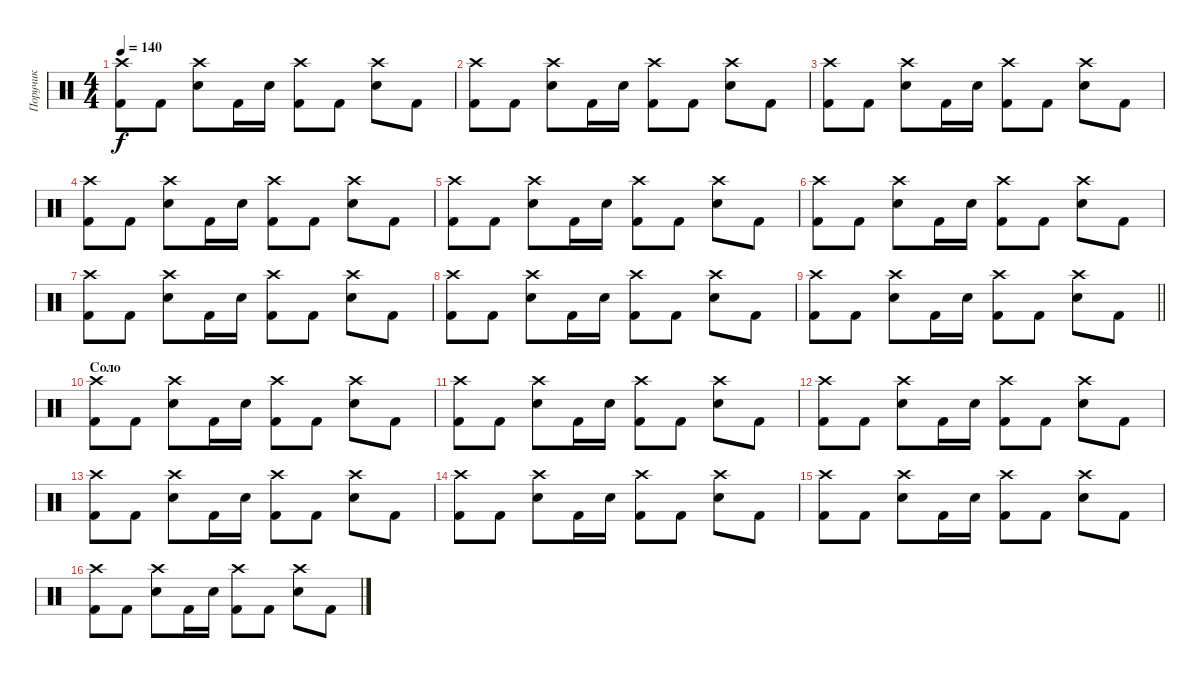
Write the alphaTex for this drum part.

\track ("Поручик" "Поручик") {instrument percussion}
\staff {score}
\articulation defaults
\ts (4 4)
\tempo 140
\clef neutral
\ks c
("Crash high (hit)" "Kick (hit) 2").8{dy f} "Kick (hit) 2".8 ("Crash high (hit)" "Electric Snare (hit)").8 "Kick (hit) 2".16 "Electric Snare (hit)".16 ("Crash high (hit)" "Kick (hit) 2").8 "Kick (hit) 2".8 ("Crash high (hit)" "Electric Snare (hit)").8 "Kick (hit) 2".8 |
("Crash high (hit)" "Kick (hit) 2").8 "Kick (hit) 2".8 ("Crash high (hit)" "Electric Snare (hit)").8 "Kick (hit) 2".16 "Electric Snare (hit)".16 ("Crash high (hit)" "Kick (hit) 2").8 "Kick (hit) 2".8 ("Crash high (hit)" "Electric Snare (hit)").8 "Kick (hit) 2".8 |
("Crash high (hit)" "Kick (hit) 2").8 "Kick (hit) 2".8 ("Crash high (hit)" "Electric Snare (hit)").8 "Kick (hit) 2".16 "Electric Snare (hit)".16 ("Crash high (hit)" "Kick (hit) 2").8 "Kick (hit) 2".8 ("Crash high (hit)" "Electric Snare (hit)").8 "Kick (hit) 2".8 |
("Crash high (hit)" "Kick (hit) 2").8 "Kick (hit) 2".8 ("Crash high (hit)" "Electric Snare (hit)").8 "Kick (hit) 2".16 "Electric Snare (hit)".16 ("Crash high (hit)" "Kick (hit) 2").8 "Kick (hit) 2".8 ("Crash high (hit)" "Electric Snare (hit)").8 "Kick (hit) 2".8 |
("Crash high (hit)" "Kick (hit) 2").8 "Kick (hit) 2".8 ("Crash high (hit)" "Electric Snare (hit)").8 "Kick (hit) 2".16 "Electric Snare (hit)".16 ("Crash high (hit)" "Kick (hit) 2").8 "Kick (hit) 2".8 ("Crash high (hit)" "Electric Snare (hit)").8 "Kick (hit) 2".8 |
("Crash high (hit)" "Kick (hit) 2").8 "Kick (hit) 2".8 ("Crash high (hit)" "Electric Snare (hit)").8 "Kick (hit) 2".16 "Electric Snare (hit)".16 ("Crash high (hit)" "Kick (hit) 2").8 "Kick (hit) 2".8 ("Crash high (hit)" "Electric Snare (hit)").8 "Kick (hit) 2".8 |
("Crash high (hit)" "Kick (hit) 2").8 "Kick (hit) 2".8 ("Crash high (hit)" "Electric Snare (hit)").8 "Kick (hit) 2".16 "Electric Snare (hit)".16 ("Crash high (hit)" "Kick (hit) 2").8 "Kick (hit) 2".8 ("Crash high (hit)" "Electric Snare (hit)").8 "Kick (hit) 2".8 |
("Crash high (hit)" "Kick (hit) 2").8 "Kick (hit) 2".8 ("Crash high (hit)" "Electric Snare (hit)").8 "Kick (hit) 2".16 "Electric Snare (hit)".16 ("Crash high (hit)" "Kick (hit) 2").8 "Kick (hit) 2".8 ("Crash high (hit)" "Electric Snare (hit)").8 "Kick (hit) 2".8 |
\barLineRight lightlight
("Crash high (hit)" "Kick (hit) 2").8 "Kick (hit) 2".8 ("Crash high (hit)" "Electric Snare (hit)").8 "Kick (hit) 2".16 "Electric Snare (hit)".16 ("Crash high (hit)" "Kick (hit) 2").8 "Kick (hit) 2".8 ("Crash high (hit)" "Electric Snare (hit)").8 "Kick (hit) 2".8 |
\section ("" "Соло")
("Crash high (hit)" "Kick (hit) 2").8 "Kick (hit) 2".8 ("Crash high (hit)" "Electric Snare (hit)").8 "Kick (hit) 2".16 "Electric Snare (hit)".16 ("Crash high (hit)" "Kick (hit) 2").8 "Kick (hit) 2".8 ("Crash high (hit)" "Electric Snare (hit)").8 "Kick (hit) 2".8 |
("Crash high (hit)" "Kick (hit) 2").8 "Kick (hit) 2".8 ("Crash high (hit)" "Electric Snare (hit)").8 "Kick (hit) 2".16 "Electric Snare (hit)".16 ("Crash high (hit)" "Kick (hit) 2").8 "Kick (hit) 2".8 ("Crash high (hit)" "Electric Snare (hit)").8 "Kick (hit) 2".8 |
("Crash high (hit)" "Kick (hit) 2").8 "Kick (hit) 2".8 ("Crash high (hit)" "Electric Snare (hit)").8 "Kick (hit) 2".16 "Electric Snare (hit)".16 ("Crash high (hit)" "Kick (hit) 2").8 "Kick (hit) 2".8 ("Crash high (hit)" "Electric Snare (hit)").8 "Kick (hit) 2".8 |
("Crash high (hit)" "Kick (hit) 2").8 "Kick (hit) 2".8 ("Crash high (hit)" "Electric Snare (hit)").8 "Kick (hit) 2".16 "Electric Snare (hit)".16 ("Crash high (hit)" "Kick (hit) 2").8 "Kick (hit) 2".8 ("Crash high (hit)" "Electric Snare (hit)").8 "Kick (hit) 2".8 |
("Crash high (hit)" "Kick (hit) 2").8 "Kick (hit) 2".8 ("Crash high (hit)" "Electric Snare (hit)").8 "Kick (hit) 2".16 "Electric Snare (hit)".16 ("Crash high (hit)" "Kick (hit) 2").8 "Kick (hit) 2".8 ("Crash high (hit)" "Electric Snare (hit)").8 "Kick (hit) 2".8 |
("Crash high (hit)" "Kick (hit) 2").8 "Kick (hit) 2".8 ("Crash high (hit)" "Electric Snare (hit)").8 "Kick (hit) 2".16 "Electric Snare (hit)".16 ("Crash high (hit)" "Kick (hit) 2").8 "Kick (hit) 2".8 ("Crash high (hit)" "Electric Snare (hit)").8 "Kick (hit) 2".8 |
("Crash high (hit)" "Kick (hit) 2").8 "Kick (hit) 2".8 ("Crash high (hit)" "Electric Snare (hit)").8 "Kick (hit) 2".16 "Electric Snare (hit)".16 ("Crash high (hit)" "Kick (hit) 2").8 "Kick (hit) 2".8 ("Crash high (hit)" "Electric Snare (hit)").8 "Kick (hit) 2".8
